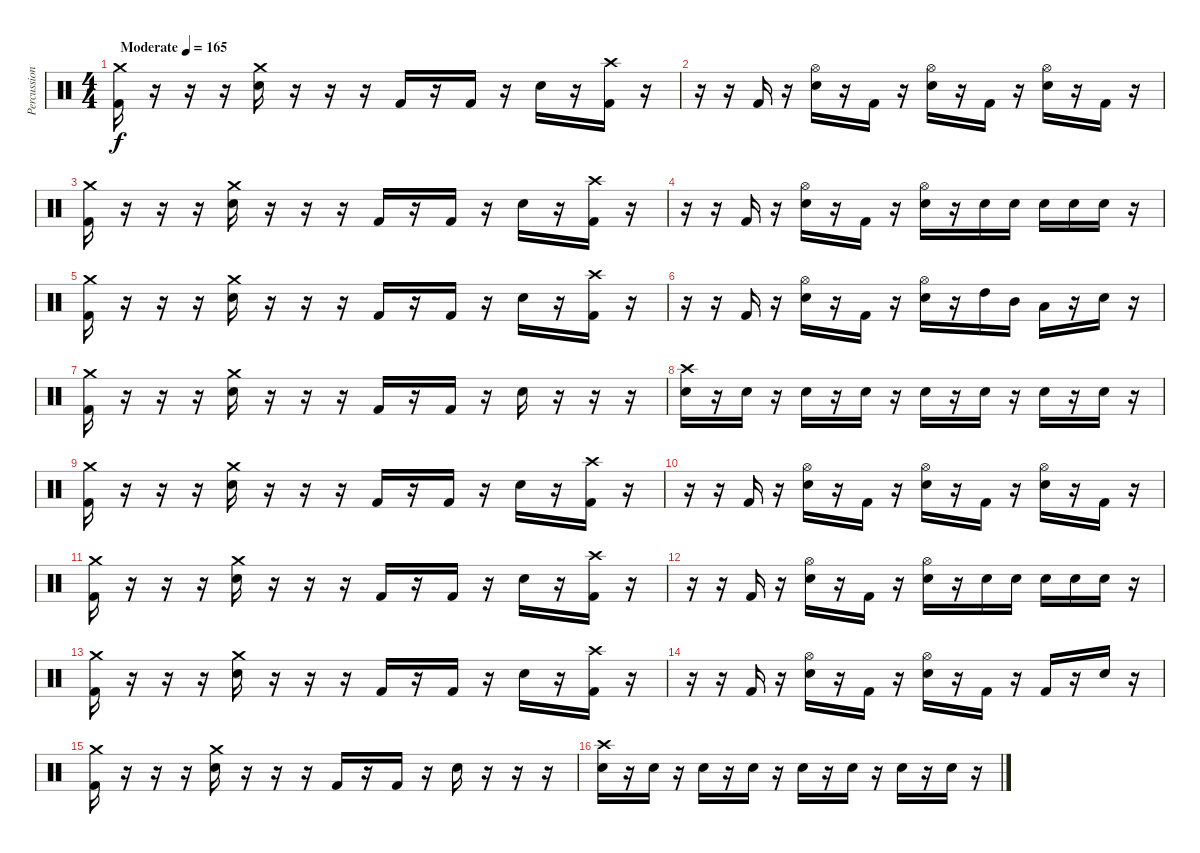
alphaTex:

\track ("Percussion" "Percussion") {instrument percussion}
\staff {score}
\articulation defaults
\ts (4 4)
\tempo (165 "Moderate")
\clef neutral
\ks c
("Crash medium (hit)" "Kick (hit) 2").16{dy f} r.16 r.16 r.16 ("Crash medium (hit)" "Electric Snare (hit)").16 r.16 r.16 r.16 "Kick (hit) 2".16 r.16 "Kick (hit) 2".16 r.16 "Electric Snare (hit)".16 r.16 ("Crash high (hit)" "Kick (hit) 2").16 r.16 |
r.16 r.16 "Kick (hit) 2".16 r.16 ("Hi-Hat (open)" "Electric Snare (hit)").16 r.16 "Kick (hit) 2".16 r.16 ("Hi-Hat (open)" "Electric Snare (hit)").16 r.16 "Kick (hit) 2".16 r.16 ("Hi-Hat (open)" "Electric Snare (hit)").16 r.16 "Kick (hit) 2".16 r.16 |
("Crash medium (hit)" "Kick (hit) 2").16 r.16 r.16 r.16 ("Crash medium (hit)" "Electric Snare (hit)").16 r.16 r.16 r.16 "Kick (hit) 2".16 r.16 "Kick (hit) 2".16 r.16 "Electric Snare (hit)".16 r.16 ("Crash high (hit)" "Kick (hit) 2").16 r.16 |
r.16 r.16 "Kick (hit) 2".16 r.16 ("Hi-Hat (open)" "Electric Snare (hit)").16 r.16 "Kick (hit) 2".16 r.16 ("Hi-Hat (open)" "Electric Snare (hit)").16 r.16 "Electric Snare (hit)".16 "Electric Snare (hit)".16 "Electric Snare (hit)".16 "Electric Snare (hit)".16 "Electric Snare (hit)".16 r.16 |
("Crash medium (hit)" "Kick (hit) 2").16 r.16 r.16 r.16 ("Crash medium (hit)" "Electric Snare (hit)").16 r.16 r.16 r.16 "Kick (hit) 2".16 r.16 "Kick (hit) 2".16 r.16 "Electric Snare (hit)".16 r.16 ("Crash high (hit)" "Kick (hit) 2").16 r.16 |
r.16 r.16 "Kick (hit) 2".16 r.16 ("Hi-Hat (open)" "Electric Snare (hit)").16 r.16 "Kick (hit) 2".16 r.16 ("Hi-Hat (open)" "Electric Snare (hit)").16 r.16 "High Tom (hit)".16 "Mid Tom (hit)".16 "Low Tom (hit)".16 r.16 "Electric Snare (hit)".16 r.16 |
("Crash medium (hit)" "Kick (hit) 2").16 r.16 r.16 r.16 ("Crash medium (hit)" "Electric Snare (hit)").16 r.16 r.16 r.16 "Kick (hit) 2".16 r.16 "Kick (hit) 2".16 r.16 "Electric Snare (hit)".16 r.16 r.16 r.16 |
("Crash high (hit)" "Electric Snare (hit)").16 r.16 "Electric Snare (hit)".16 r.16 "Electric Snare (hit)".16 r.16 "Electric Snare (hit)".16 r.16 "Electric Snare (hit)".16 r.16 "Electric Snare (hit)".16 r.16 "Electric Snare (hit)".16 r.16 "Electric Snare (hit)".16 r.16 |
("Crash medium (hit)" "Kick (hit) 2").16 r.16 r.16 r.16 ("Crash medium (hit)" "Electric Snare (hit)").16 r.16 r.16 r.16 "Kick (hit) 2".16 r.16 "Kick (hit) 2".16 r.16 "Electric Snare (hit)".16 r.16 ("Crash high (hit)" "Kick (hit) 2").16 r.16 |
r.16 r.16 "Kick (hit) 2".16 r.16 ("Hi-Hat (open)" "Electric Snare (hit)").16 r.16 "Kick (hit) 2".16 r.16 ("Hi-Hat (open)" "Electric Snare (hit)").16 r.16 "Kick (hit) 2".16 r.16 ("Hi-Hat (open)" "Electric Snare (hit)").16 r.16 "Kick (hit) 2".16 r.16 |
("Crash medium (hit)" "Kick (hit) 2").16 r.16 r.16 r.16 ("Crash medium (hit)" "Electric Snare (hit)").16 r.16 r.16 r.16 "Kick (hit) 2".16 r.16 "Kick (hit) 2".16 r.16 "Electric Snare (hit)".16 r.16 ("Crash high (hit)" "Kick (hit) 2").16 r.16 |
r.16 r.16 "Kick (hit) 2".16 r.16 ("Hi-Hat (open)" "Electric Snare (hit)").16 r.16 "Kick (hit) 2".16 r.16 ("Hi-Hat (open)" "Electric Snare (hit)").16 r.16 "Electric Snare (hit)".16 "Electric Snare (hit)".16 "Electric Snare (hit)".16 "Electric Snare (hit)".16 "Electric Snare (hit)".16 r.16 |
("Crash medium (hit)" "Kick (hit) 2").16 r.16 r.16 r.16 ("Crash medium (hit)" "Electric Snare (hit)").16 r.16 r.16 r.16 "Kick (hit) 2".16 r.16 "Kick (hit) 2".16 r.16 "Electric Snare (hit)".16 r.16 ("Crash high (hit)" "Kick (hit) 2").16 r.16 |
r.16 r.16 "Kick (hit) 2".16 r.16 ("Hi-Hat (open)" "Electric Snare (hit)").16 r.16 "Kick (hit) 2".16 r.16 ("Hi-Hat (open)" "Electric Snare (hit)").16 r.16 "Kick (hit) 2".16 r.16 "Kick (hit) 2".16 r.16 "Electric Snare (hit)".16 r.16 |
("Crash medium (hit)" "Kick (hit) 2").16 r.16 r.16 r.16 ("Crash medium (hit)" "Electric Snare (hit)").16 r.16 r.16 r.16 "Kick (hit) 2".16 r.16 "Kick (hit) 2".16 r.16 "Electric Snare (hit)".16 r.16 r.16 r.16 |
("Crash high (hit)" "Electric Snare (hit)").16 r.16 "Electric Snare (hit)".16 r.16 "Electric Snare (hit)".16 r.16 "Electric Snare (hit)".16 r.16 "Electric Snare (hit)".16 r.16 "Electric Snare (hit)".16 r.16 "Electric Snare (hit)".16 r.16 "Electric Snare (hit)".16 r.16
